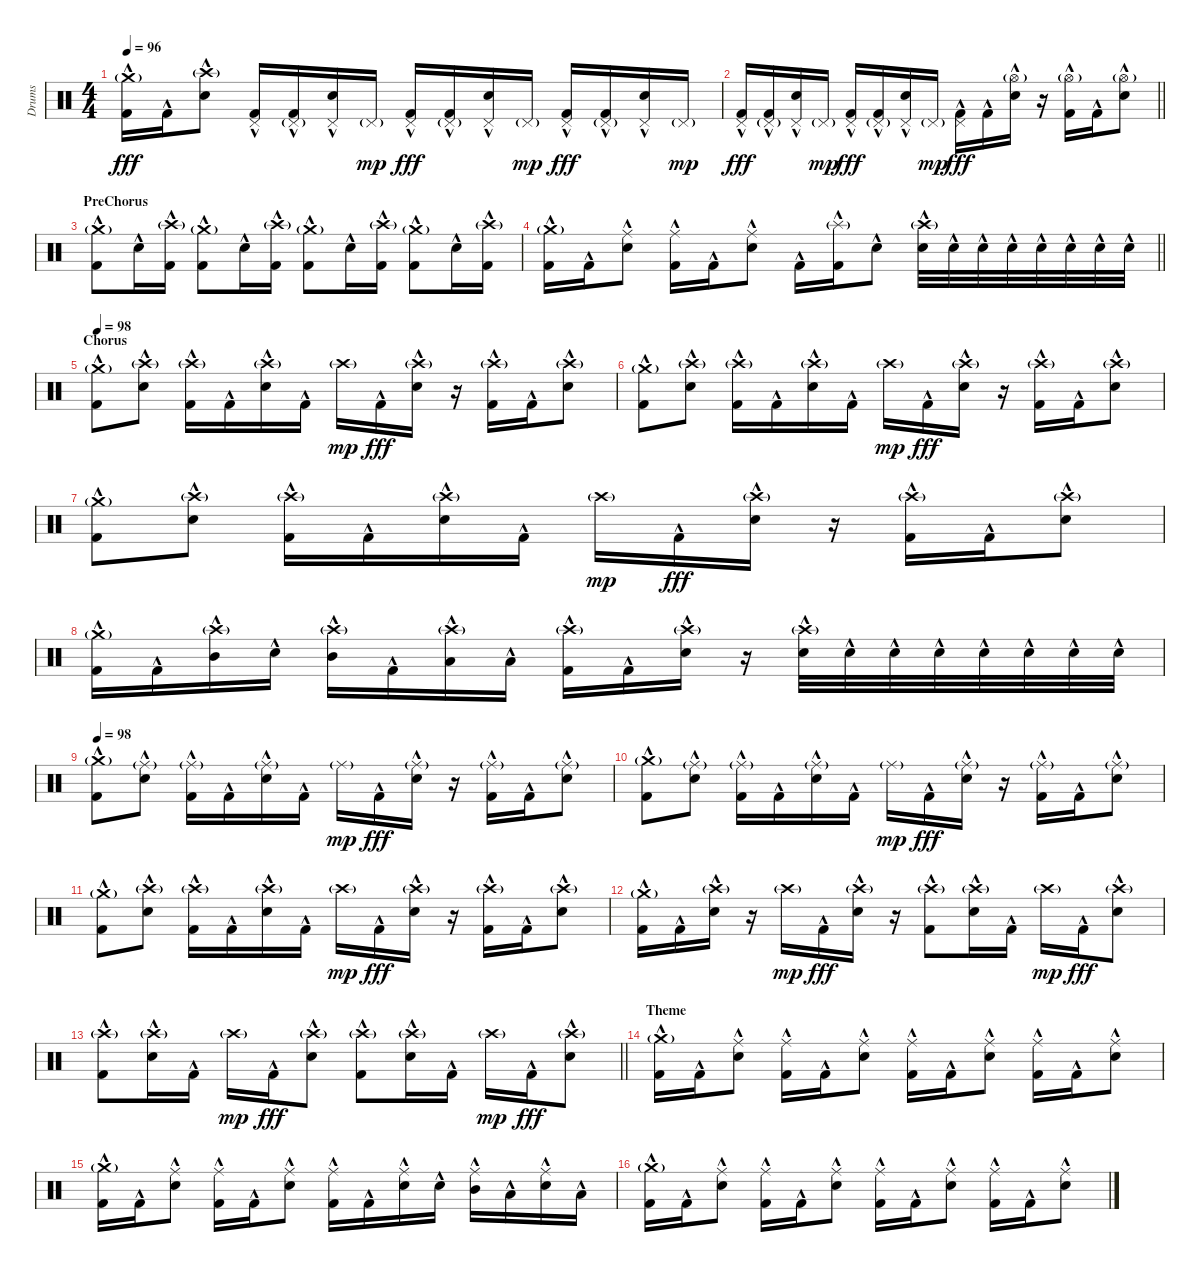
\track ("Drums" "Drums") {instrument percussion}
\staff {score}
\articulation defaults
\ts (4 4)
\tempo 96
\clef neutral
\ks c
("Crash medium (hit)"{g} "Kick (hit) 2"{hac}).16{dy fff} "Kick (hit) 2"{hac}.16 ("Crash high (hit)"{g} "Snare (hit) 2"{hac}).8 ("Pedal Hi-Hat (hit)" "Kick (hit) 2"{hac}).16 ("Pedal Hi-Hat (hit)"{g} "Kick (hit) 2"{hac}).16 ("Pedal Hi-Hat (hit)" "Snare (hit) 2"{hac}).16 "Pedal Hi-Hat (hit)"{g}.16{dy mp} ("Pedal Hi-Hat (hit)" "Kick (hit) 2"{hac}).16{dy fff} ("Pedal Hi-Hat (hit)"{g} "Kick (hit) 2"{hac}).16 ("Pedal Hi-Hat (hit)" "Snare (hit) 2"{hac}).16 "Pedal Hi-Hat (hit)"{g}.16{dy mp} ("Pedal Hi-Hat (hit)" "Kick (hit) 2"{hac}).16{dy fff} ("Pedal Hi-Hat (hit)"{g} "Kick (hit) 2"{hac}).16 ("Pedal Hi-Hat (hit)" "Snare (hit) 2"{hac}).16 "Pedal Hi-Hat (hit)"{g}.16{dy mp} |
\barLineRight lightlight
("Pedal Hi-Hat (hit)" "Kick (hit) 2"{hac}).16{dy fff} ("Pedal Hi-Hat (hit)"{g} "Kick (hit) 2"{hac}).16 ("Pedal Hi-Hat (hit)" "Snare (hit) 2"{hac}).16 "Pedal Hi-Hat (hit)"{g}.16{dy mp} ("Pedal Hi-Hat (hit)" "Kick (hit) 2"{hac}).16{dy fff} ("Pedal Hi-Hat (hit)"{g} "Kick (hit) 2"{hac}).16 ("Pedal Hi-Hat (hit)" "Snare (hit) 2"{hac}).16 "Pedal Hi-Hat (hit)"{g}.16{dy mp} ("Pedal Hi-Hat (hit)" "Kick (hit) 2"{hac}).16{dy fff} "Kick (hit) 2"{hac}.16 ("Hi-Hat (open)"{g} "Snare (hit) 2"{hac}).16 r.16 ("Hi-Hat (open)"{g} "Kick (hit) 2"{hac}).16 "Kick (hit) 2"{hac}.16 ("Hi-Hat (open)"{g} "Snare (hit) 2"{hac}).8 |
\section ("" "PreChorus")
("Crash medium (hit)"{g} "Kick (hit) 2"{hac}).8 "Snare (hit) 2"{hac}.16 ("Crash high (hit)"{g} "Kick (hit) 2"{hac}).16 ("Crash medium (hit)"{g} "Kick (hit) 2"{hac}).8 "Snare (hit) 2"{hac}.16 ("Crash high (hit)"{g} "Kick (hit) 2"{hac}).16 ("Crash medium (hit)"{g} "Kick (hit) 2"{hac}).8 "Snare (hit) 2"{hac}.16 ("Crash high (hit)"{g} "Kick (hit) 2"{hac}).16 ("Crash medium (hit)"{g} "Kick (hit) 2"{hac}).8 "Snare (hit) 2"{hac}.16 ("Crash high (hit)"{g} "Kick (hit) 2"{hac}).16 |
\barLineRight lightlight
("Crash medium (hit)"{g} "Kick (hit) 2"{hac}).16 "Kick (hit) 2"{hac}.16 ("Ride (middle)" "Snare (hit) 2"{hac}).8 ("Ride (middle)" "Kick (hit) 2"{hac}).16 "Kick (hit) 2"{hac}.16 ("Ride (middle)" "Snare (hit) 2"{hac}).8 "Kick (hit) 2"{hac}.16 ("Splash (hit)"{g} "Kick (hit) 2"{hac}).16 "Snare (hit) 2"{hac}.8 ("Crash high (hit)"{g} "Snare (hit) 2"{hac}).32 "Snare (hit) 2"{hac}.32 "Snare (hit) 2"{hac}.32 "Snare (hit) 2"{hac}.32 "Snare (hit) 2"{hac}.32 "Snare (hit) 2"{hac}.32 "Snare (hit) 2"{hac}.32 "Snare (hit) 2"{hac}.32 |
\section ("" "Chorus")
\tempo 98
("Crash medium (hit)"{g} "Kick (hit) 2"{hac}).8 ("Crash high (hit)"{g} "Snare (hit) 2"{hac}).8 ("Crash high (hit)"{g} "Kick (hit) 2"{hac}).16 "Kick (hit) 2"{hac}.16 ("Crash high (hit)"{g} "Snare (hit) 2"{hac}).16 "Kick (hit) 2"{hac}.16 "Crash high (hit)"{g}.16{dy mp} "Kick (hit) 2"{hac}.16{dy fff} ("Crash high (hit)"{g} "Snare (hit) 2"{hac}).16 r.16 ("Crash high (hit)"{g} "Kick (hit) 2"{hac}).16 "Kick (hit) 2"{hac}.16 ("Crash high (hit)"{g} "Snare (hit) 2"{hac}).8 |
("Crash medium (hit)"{g} "Kick (hit) 2"{hac}).8 ("Crash high (hit)"{g} "Snare (hit) 2"{hac}).8 ("Crash high (hit)"{g} "Kick (hit) 2"{hac}).16 "Kick (hit) 2"{hac}.16 ("Crash high (hit)"{g} "Snare (hit) 2"{hac}).16 "Kick (hit) 2"{hac}.16 "Crash high (hit)"{g}.16{dy mp} "Kick (hit) 2"{hac}.16{dy fff} ("Crash high (hit)"{g} "Snare (hit) 2"{hac}).16 r.16 ("Crash high (hit)"{g} "Kick (hit) 2"{hac}).16 "Kick (hit) 2"{hac}.16 ("Crash high (hit)"{g} "Snare (hit) 2"{hac}).8 |
("Crash medium (hit)"{g} "Kick (hit) 2"{hac}).8 ("Crash high (hit)"{g} "Snare (hit) 2"{hac}).8 ("Crash high (hit)"{g} "Kick (hit) 2"{hac}).16 "Kick (hit) 2"{hac}.16 ("Crash high (hit)"{g} "Snare (hit) 2"{hac}).16 "Kick (hit) 2"{hac}.16 "Crash high (hit)"{g}.16{dy mp} "Kick (hit) 2"{hac}.16{dy fff} ("Crash high (hit)"{g} "Snare (hit) 2"{hac}).16 r.16 ("Crash high (hit)"{g} "Kick (hit) 2"{hac}).16 "Kick (hit) 2"{hac}.16 ("Crash high (hit)"{g} "Snare (hit) 2"{hac}).8 |
("Crash medium (hit)"{g} "Kick (hit) 2"{hac}).16 "Kick (hit) 2"{hac}.16 ("Crash high (hit)"{g} "Mid Tom (hit)"{hac}).16 "Snare (hit) 2"{hac}.16 ("Crash high (hit)"{g} "Mid Tom (hit)"{hac}).16 "Kick (hit) 2"{hac}.16 ("Crash high (hit)"{g} "Low Tom (hit)"{hac}).16 "Low Tom (hit)"{hac}.16 ("Crash high (hit)"{g} "Kick (hit) 2"{hac}).16 "Kick (hit) 2"{hac}.16 ("Crash high (hit)"{g} "Snare (hit) 2"{hac}).16 r.16 ("Crash high (hit)"{g} "Snare (hit) 2"{hac}).32 "Snare (hit) 2"{hac}.32 "Snare (hit) 2"{hac}.32 "Snare (hit) 2"{hac}.32 "Snare (hit) 2"{hac}.32 "Snare (hit) 2"{hac}.32 "Snare (hit) 2"{hac}.32 "Snare (hit) 2"{hac}.32 |
\tempo 98
("Crash medium (hit)"{g} "Kick (hit) 2"{hac}).8 ("Ride (middle)"{g} "Snare (hit) 2"{hac}).8 ("Ride (middle)"{g} "Kick (hit) 2"{hac}).16 "Kick (hit) 2"{hac}.16 ("Ride (middle)"{g} "Snare (hit) 2"{hac}).16 "Kick (hit) 2"{hac}.16 "Ride (middle)"{g}.16{dy mp} "Kick (hit) 2"{hac}.16{dy fff} ("Ride (middle)"{g} "Snare (hit) 2"{hac}).16 r.16 ("Ride (middle)"{g} "Kick (hit) 2"{hac}).16 "Kick (hit) 2"{hac}.16 ("Ride (middle)"{g} "Snare (hit) 2"{hac}).8 |
("Crash medium (hit)"{g} "Kick (hit) 2"{hac}).8 ("Ride (middle)"{g} "Snare (hit) 2"{hac}).8 ("Ride (middle)"{g} "Kick (hit) 2"{hac}).16 "Kick (hit) 2"{hac}.16 ("Ride (middle)"{g} "Snare (hit) 2"{hac}).16 "Kick (hit) 2"{hac}.16 "Ride (middle)"{g}.16{dy mp} "Kick (hit) 2"{hac}.16{dy fff} ("Ride (middle)"{g} "Snare (hit) 2"{hac}).16 r.16 ("Ride (middle)"{g} "Kick (hit) 2"{hac}).16 "Kick (hit) 2"{hac}.16 ("Ride (middle)"{g} "Snare (hit) 2"{hac}).8 |
("Crash medium (hit)"{g} "Kick (hit) 2"{hac}).8 ("Crash high (hit)"{g} "Snare (hit) 2"{hac}).8 ("Crash high (hit)"{g} "Kick (hit) 2"{hac}).16 "Kick (hit) 2"{hac}.16 ("Crash high (hit)"{g} "Snare (hit) 2"{hac}).16 "Kick (hit) 2"{hac}.16 "Crash high (hit)"{g}.16{dy mp} "Kick (hit) 2"{hac}.16{dy fff} ("Crash high (hit)"{g} "Snare (hit) 2"{hac}).16 r.16 ("Crash high (hit)"{g} "Kick (hit) 2"{hac}).16 "Kick (hit) 2"{hac}.16 ("Crash high (hit)"{g} "Snare (hit) 2"{hac}).8 |
("Crash medium (hit)"{g} "Kick (hit) 2"{hac}).16 "Kick (hit) 2"{hac}.16 ("Crash high (hit)"{g} "Snare (hit) 2"{hac}).16 r.16 "Crash high (hit)"{g}.16{dy mp} "Kick (hit) 2"{hac}.16{dy fff} ("Crash high (hit)"{g} "Snare (hit) 2"{hac}).16 r.16 ("Crash high (hit)"{g} "Kick (hit) 2"{hac}).8 ("Crash high (hit)"{g} "Snare (hit) 2"{hac}).16 "Kick (hit) 2"{hac}.16 "Crash high (hit)"{g}.16{dy mp} "Kick (hit) 2"{hac}.16{dy fff} ("Crash high (hit)"{g} "Snare (hit) 2"{hac}).8 |
\barLineRight lightlight
("Crash high (hit)"{g} "Kick (hit) 2"{hac}).8 ("Crash high (hit)"{g} "Snare (hit) 2"{hac}).16 "Kick (hit) 2"{hac}.16 "Crash high (hit)"{g}.16{dy mp} "Kick (hit) 2"{hac}.16{dy fff} ("Crash high (hit)"{g} "Snare (hit) 2"{hac}).8 ("Crash high (hit)"{g} "Kick (hit) 2"{hac}).8 ("Crash high (hit)"{g} "Snare (hit) 2"{hac}).16 "Kick (hit) 2"{hac}.16 "Crash high (hit)"{g}.16{dy mp} "Kick (hit) 2"{hac}.16{dy fff} ("Crash high (hit)"{g} "Snare (hit) 2"{hac}).8 |
\section ("" "Theme")
("Crash medium (hit)"{g} "Kick (hit) 2"{hac}).16 "Kick (hit) 2"{hac}.16 ("Ride (middle)" "Snare (hit) 2"{hac}).8 ("Ride (middle)" "Kick (hit) 2"{hac}).16 "Kick (hit) 2"{hac}.16 ("Ride (middle)" "Snare (hit) 2"{hac}).8 ("Ride (middle)" "Kick (hit) 2"{hac}).16 "Kick (hit) 2"{hac}.16 ("Ride (middle)" "Snare (hit) 2"{hac}).8 ("Ride (middle)" "Kick (hit) 2"{hac}).16 "Kick (hit) 2"{hac}.16 ("Ride (middle)" "Snare (hit) 2"{hac}).8 |
("Crash medium (hit)"{g} "Kick (hit) 2"{hac}).16 "Kick (hit) 2"{hac}.16 ("Ride (middle)" "Snare (hit) 2"{hac}).8 ("Ride (middle)" "Kick (hit) 2"{hac}).16 "Kick (hit) 2"{hac}.16 ("Ride (middle)" "Snare (hit) 2"{hac}).8 ("Ride (middle)" "Kick (hit) 2"{hac}).16 "Kick (hit) 2"{hac}.16 ("Ride (middle)" "Snare (hit) 2"{hac}).16 "Snare (hit) 2"{hac}.16 ("Ride (middle)" "Mid Tom (hit)"{hac}).16 "Low Tom (hit)"{hac}.16 ("Ride (middle)" "Snare (hit) 2"{hac}).16 "Low Tom (hit)"{hac}.16 |
("Crash medium (hit)"{g} "Kick (hit) 2"{hac}).16 "Kick (hit) 2"{hac}.16 ("Ride (middle)" "Snare (hit) 2"{hac}).8 ("Ride (middle)" "Kick (hit) 2"{hac}).16 "Kick (hit) 2"{hac}.16 ("Ride (middle)" "Snare (hit) 2"{hac}).8 ("Ride (middle)" "Kick (hit) 2"{hac}).16 "Kick (hit) 2"{hac}.16 ("Ride (middle)" "Snare (hit) 2"{hac}).8 ("Ride (middle)" "Kick (hit) 2"{hac}).16 "Kick (hit) 2"{hac}.16 ("Ride (middle)" "Snare (hit) 2"{hac}).8
